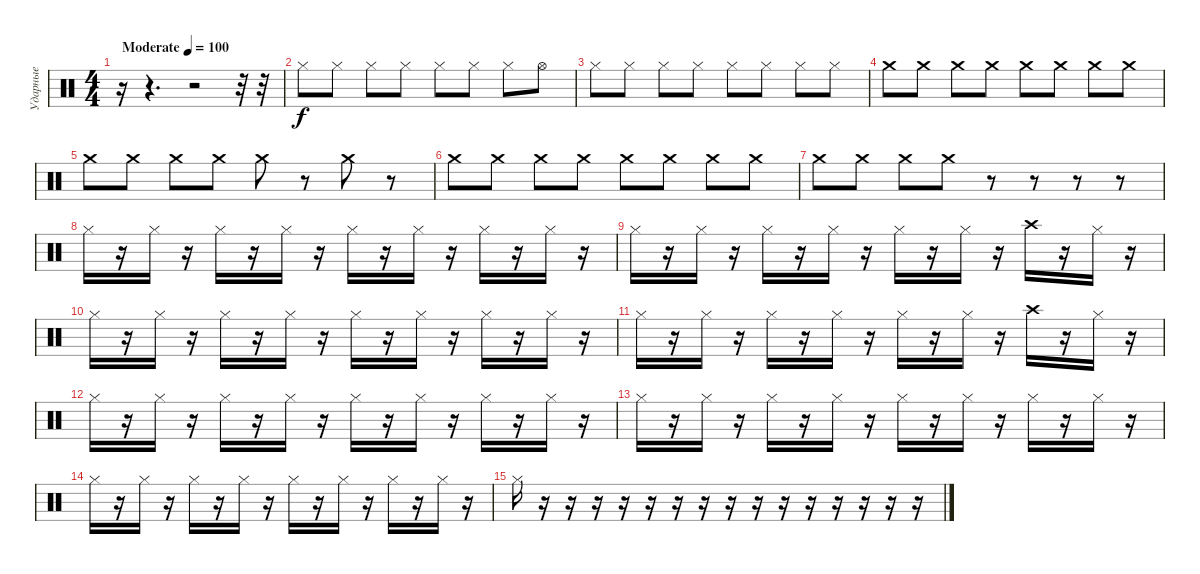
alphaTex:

\track ("Ударные" "Ударные") {instrument percussion}
\staff {score}
\articulation defaults
\ts (4 4)
\tempo (100 "Moderate")
\clef neutral
\ks c
r.16{dy f} r.4{d} r.2 r.32 r.32 |
"Hi-Hat (closed)".8 "Hi-Hat (closed)".8 "Hi-Hat (closed)".8 "Hi-Hat (closed)".8 "Hi-Hat (closed)".8 "Hi-Hat (closed)".8 "Hi-Hat (closed)".8 "Hi-Hat (open)".8 |
"Hi-Hat (closed)".8 "Hi-Hat (closed)".8 "Hi-Hat (closed)".8 "Hi-Hat (closed)".8 "Hi-Hat (closed)".8 "Hi-Hat (closed)".8 "Hi-Hat (closed)".8 "Hi-Hat (closed)".8 |
"Crash medium (hit)".8 "Crash medium (hit)".8 "Crash medium (hit)".8 "Crash medium (hit)".8 "Crash medium (hit)".8 "Crash medium (hit)".8 "Crash medium (hit)".8 "Crash medium (hit)".8 |
"Crash medium (hit)".8 "Crash medium (hit)".8 "Crash medium (hit)".8 "Crash medium (hit)".8 "Crash medium (hit)".8 r.8 "Crash medium (hit)".8 r.8 |
"Crash medium (hit)".8 "Crash medium (hit)".8 "Crash medium (hit)".8 "Crash medium (hit)".8 "Crash medium (hit)".8 "Crash medium (hit)".8 "Crash medium (hit)".8 "Crash medium (hit)".8 |
"Crash medium (hit)".8 "Crash medium (hit)".8 "Crash medium (hit)".8 "Crash medium (hit)".8 r.8 r.8 r.8 r.8 |
"Hi-Hat (closed)".16 r.16 "Hi-Hat (closed)".16 r.16 "Hi-Hat (closed)".16 r.16 "Hi-Hat (closed)".16 r.16 "Hi-Hat (closed)".16 r.16 "Hi-Hat (closed)".16 r.16 "Hi-Hat (closed)".16 r.16 "Hi-Hat (closed)".16 r.16 |
"Hi-Hat (closed)".16 r.16 "Hi-Hat (closed)".16 r.16 "Hi-Hat (closed)".16 r.16 "Hi-Hat (closed)".16 r.16 "Hi-Hat (closed)".16 r.16 "Hi-Hat (closed)".16 r.16 "Crash high (hit)".16 r.16 "Hi-Hat (closed)".16 r.16 |
"Hi-Hat (closed)".16 r.16 "Hi-Hat (closed)".16 r.16 "Hi-Hat (closed)".16 r.16 "Hi-Hat (closed)".16 r.16 "Hi-Hat (closed)".16 r.16 "Hi-Hat (closed)".16 r.16 "Hi-Hat (closed)".16 r.16 "Hi-Hat (closed)".16 r.16 |
"Hi-Hat (closed)".16 r.16 "Hi-Hat (closed)".16 r.16 "Hi-Hat (closed)".16 r.16 "Hi-Hat (closed)".16 r.16 "Hi-Hat (closed)".16 r.16 "Hi-Hat (closed)".16 r.16 "Crash high (hit)".16 r.16 "Hi-Hat (closed)".16 r.16 |
"Hi-Hat (closed)".16 r.16 "Hi-Hat (closed)".16 r.16 "Hi-Hat (closed)".16 r.16 "Hi-Hat (closed)".16 r.16 "Hi-Hat (closed)".16 r.16 "Hi-Hat (closed)".16 r.16 "Hi-Hat (closed)".16 r.16 "Hi-Hat (closed)".16 r.16 |
"Hi-Hat (closed)".16 r.16 "Hi-Hat (closed)".16 r.16 "Hi-Hat (closed)".16 r.16 "Hi-Hat (closed)".16 r.16 "Hi-Hat (closed)".16 r.16 "Hi-Hat (closed)".16 r.16 "Hi-Hat (closed)".16 r.16 "Hi-Hat (closed)".16 r.16 |
"Hi-Hat (closed)".16 r.16 "Hi-Hat (closed)".16 r.16 "Hi-Hat (closed)".16 r.16 "Hi-Hat (closed)".16 r.16 "Hi-Hat (closed)".16 r.16 "Hi-Hat (closed)".16 r.16 "Hi-Hat (closed)".16 r.16 "Hi-Hat (closed)".16 r.16 |
"Hi-Hat (closed)".16 r.16 r.16 r.16 r.16 r.16 r.16 r.16 r.16 r.16 r.16 r.16 r.16 r.16 r.16 r.16
